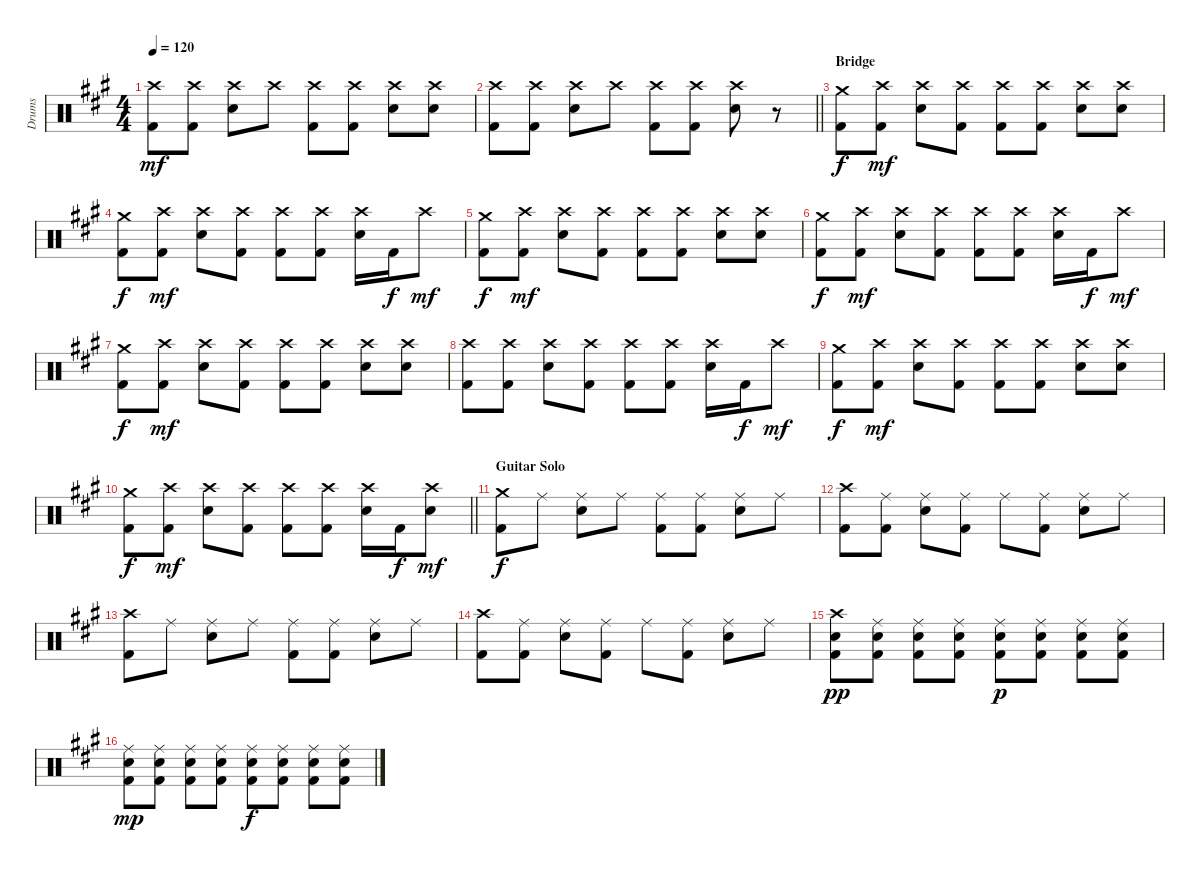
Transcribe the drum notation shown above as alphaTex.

\track ("Drums" "Drums") {instrument percussion}
\staff {score}
\articulation defaults
\ts (4 4)
\tempo 120
\clef neutral
\ks a
("Crash high (hit)" "Kick (hit) 2").8{dy mf} ("Crash high (hit)" "Kick (hit) 2").8 ("Crash high (hit)" "Electric Snare (hit)").8 "Crash high (hit)".8 ("Crash high (hit)" "Kick (hit) 2").8 ("Crash high (hit)" "Kick (hit) 2").8 ("Crash high (hit)" "Electric Snare (hit)").8 ("Crash high (hit)" "Electric Snare (hit)").8 |
\barLineRight lightlight
("Crash high (hit)" "Kick (hit) 2").8 ("Crash high (hit)" "Kick (hit) 2").8 ("Crash high (hit)" "Electric Snare (hit)").8 "Crash high (hit)".8 ("Crash high (hit)" "Kick (hit) 2").8 ("Crash high (hit)" "Kick (hit) 2").8 ("Crash high (hit)" "Electric Snare (hit)").8 r.8 |
\section ("" "Bridge")
("Crash medium (hit)" "Kick (hit) 2").8{dy f} ("Crash high (hit)" "Kick (hit) 2").8{dy mf} ("Crash high (hit)" "Electric Snare (hit)").8 ("Crash high (hit)" "Kick (hit) 2").8 ("Crash high (hit)" "Kick (hit) 2").8 ("Crash high (hit)" "Kick (hit) 2").8 ("Crash high (hit)" "Electric Snare (hit)").8 ("Crash high (hit)" "Electric Snare (hit)").8 |
("Crash medium (hit)" "Kick (hit) 2").8{dy f} ("Crash high (hit)" "Kick (hit) 2").8{dy mf} ("Crash high (hit)" "Electric Snare (hit)").8 ("Crash high (hit)" "Kick (hit) 2").8 ("Crash high (hit)" "Kick (hit) 2").8 ("Crash high (hit)" "Kick (hit) 2").8 ("Crash high (hit)" "Electric Snare (hit)").16 "Kick (hit) 2".16{dy f} "Crash high (hit)".8{dy mf} |
("Crash medium (hit)" "Kick (hit) 2").8{dy f} ("Crash high (hit)" "Kick (hit) 2").8{dy mf} ("Crash high (hit)" "Electric Snare (hit)").8 ("Crash high (hit)" "Kick (hit) 2").8 ("Crash high (hit)" "Kick (hit) 2").8 ("Crash high (hit)" "Kick (hit) 2").8 ("Crash high (hit)" "Electric Snare (hit)").8 ("Crash high (hit)" "Electric Snare (hit)").8 |
("Crash medium (hit)" "Kick (hit) 2").8{dy f} ("Crash high (hit)" "Kick (hit) 2").8{dy mf} ("Crash high (hit)" "Electric Snare (hit)").8 ("Crash high (hit)" "Kick (hit) 2").8 ("Crash high (hit)" "Kick (hit) 2").8 ("Crash high (hit)" "Kick (hit) 2").8 ("Crash high (hit)" "Electric Snare (hit)").16 "Kick (hit) 2".16{dy f} "Crash high (hit)".8{dy mf} |
("Crash medium (hit)" "Kick (hit) 2").8{dy f} ("Crash high (hit)" "Kick (hit) 2").8{dy mf} ("Crash high (hit)" "Electric Snare (hit)").8 ("Crash high (hit)" "Kick (hit) 2").8 ("Crash high (hit)" "Kick (hit) 2").8 ("Crash high (hit)" "Kick (hit) 2").8 ("Crash high (hit)" "Electric Snare (hit)").8 ("Crash high (hit)" "Electric Snare (hit)").8 |
("Crash high (hit)" "Kick (hit) 2").8 ("Crash high (hit)" "Kick (hit) 2").8 ("Crash high (hit)" "Electric Snare (hit)").8 ("Crash high (hit)" "Kick (hit) 2").8 ("Crash high (hit)" "Kick (hit) 2").8 ("Crash high (hit)" "Kick (hit) 2").8 ("Crash high (hit)" "Electric Snare (hit)").16 "Kick (hit) 2".16{dy f} "Crash high (hit)".8{dy mf} |
("Crash medium (hit)" "Kick (hit) 2").8{dy f} ("Crash high (hit)" "Kick (hit) 2").8{dy mf} ("Crash high (hit)" "Electric Snare (hit)").8 ("Crash high (hit)" "Kick (hit) 2").8 ("Crash high (hit)" "Kick (hit) 2").8 ("Crash high (hit)" "Kick (hit) 2").8 ("Crash high (hit)" "Electric Snare (hit)").8 ("Crash high (hit)" "Electric Snare (hit)").8 |
\barLineRight lightlight
("Crash medium (hit)" "Kick (hit) 2").8{dy f} ("Crash high (hit)" "Kick (hit) 2").8{dy mf} ("Crash high (hit)" "Electric Snare (hit)").8 ("Crash high (hit)" "Kick (hit) 2").8 ("Crash high (hit)" "Kick (hit) 2").8 ("Crash high (hit)" "Kick (hit) 2").8 ("Crash high (hit)" "Electric Snare (hit)").16 "Kick (hit) 2".16{dy f} ("Crash high (hit)" "Electric Snare (hit)").8{dy mf} |
\section ("" "Guitar Solo")
("Crash medium (hit)" "Kick (hit) 2").8{dy f} "Ride (middle)".8 ("Ride (middle)" "Electric Snare (hit)").8 "Ride (middle)".8 ("Ride (middle)" "Kick (hit) 2").8 ("Ride (middle)" "Kick (hit) 2").8 ("Ride (middle)" "Electric Snare (hit)").8 "Ride (middle)".8 |
("Crash high (hit)" "Kick (hit) 2").8 ("Ride (middle)" "Kick (hit) 2").8 ("Ride (middle)" "Electric Snare (hit)").8 ("Ride (middle)" "Kick (hit) 2").8 "Ride (middle)".8 ("Ride (middle)" "Kick (hit) 2").8 ("Ride (middle)" "Electric Snare (hit)").8 "Ride (middle)".8 |
("Crash high (hit)" "Kick (hit) 2").8 "Ride (middle)".8 ("Ride (middle)" "Electric Snare (hit)").8 "Ride (middle)".8 ("Ride (middle)" "Kick (hit) 2").8 ("Ride (middle)" "Kick (hit) 2").8 ("Ride (middle)" "Electric Snare (hit)").8 "Ride (middle)".8 |
("Crash high (hit)" "Kick (hit) 2").8 ("Ride (middle)" "Kick (hit) 2").8 ("Ride (middle)" "Electric Snare (hit)").8 ("Ride (middle)" "Kick (hit) 2").8 "Ride (middle)".8 ("Ride (middle)" "Kick (hit) 2").8 ("Ride (middle)" "Electric Snare (hit)").8 "Ride (middle)".8 |
("Crash high (hit)" "Electric Snare (hit)" "Kick (hit) 2").8{dy pp} ("Ride (middle)" "Electric Snare (hit)" "Kick (hit) 2").8 ("Ride (middle)" "Electric Snare (hit)" "Kick (hit) 2").8 ("Ride (middle)" "Electric Snare (hit)" "Kick (hit) 2").8 ("Ride (middle)" "Electric Snare (hit)" "Kick (hit) 2").8{dy p} ("Ride (middle)" "Electric Snare (hit)" "Kick (hit) 2").8 ("Ride (middle)" "Electric Snare (hit)" "Kick (hit) 2").8 ("Ride (middle)" "Electric Snare (hit)" "Kick (hit) 2").8 |
("Ride (middle)" "Electric Snare (hit)" "Kick (hit) 2").8{dy mp} ("Ride (middle)" "Electric Snare (hit)" "Kick (hit) 2").8 ("Ride (middle)" "Electric Snare (hit)" "Kick (hit) 2").8 ("Ride (middle)" "Electric Snare (hit)" "Kick (hit) 2").8 ("Ride (middle)" "Electric Snare (hit)" "Kick (hit) 2").8{dy f} ("Ride (middle)" "Electric Snare (hit)" "Kick (hit) 2").8 ("Ride (middle)" "Electric Snare (hit)" "Kick (hit) 2").8 ("Ride (middle)" "Electric Snare (hit)" "Kick (hit) 2").8
